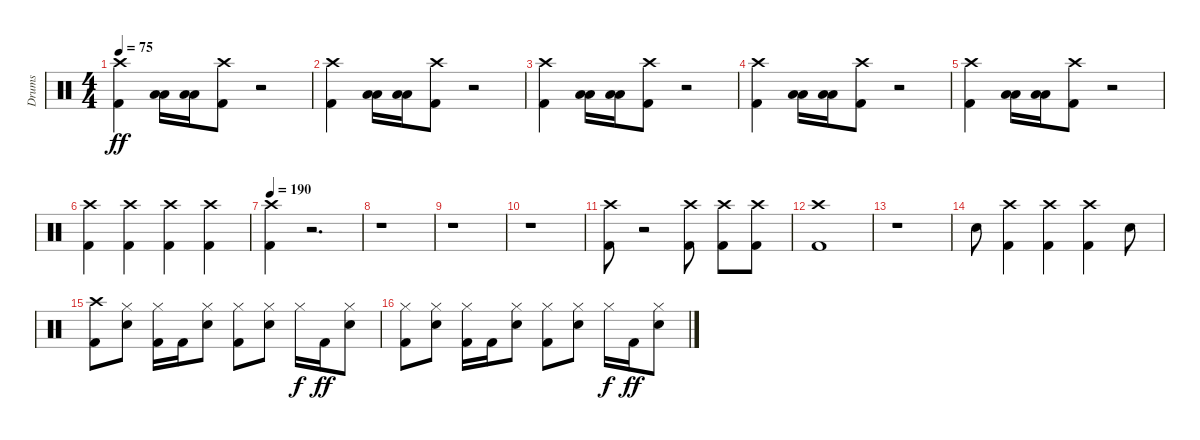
\track ("Drums" "Drums") {instrument percussion}
\staff {score}
\articulation defaults
\ts (4 4)
\tempo 75
\clef neutral
\ks c
("Crash high (hit)" "Kick (hit) 2").4{dy ff} ("Low Tom (hit)" "Low Floor Tom (hit)").16 ("Low Tom (hit)" "Low Floor Tom (hit)").16 ("Crash high (hit)" "Kick (hit) 2").8 r.2 |
("Crash high (hit)" "Kick (hit) 2").4 ("Low Tom (hit)" "Low Floor Tom (hit)").16 ("Low Tom (hit)" "Low Floor Tom (hit)").16 ("Crash high (hit)" "Kick (hit) 2").8 r.2 |
("Crash high (hit)" "Kick (hit) 2").4 ("Low Tom (hit)" "Low Floor Tom (hit)").16 ("Low Tom (hit)" "Low Floor Tom (hit)").16 ("Crash high (hit)" "Kick (hit) 2").8 r.2 |
("Crash high (hit)" "Kick (hit) 2").4 ("Low Tom (hit)" "Low Floor Tom (hit)").16 ("Low Tom (hit)" "Low Floor Tom (hit)").16 ("Crash high (hit)" "Kick (hit) 2").8 r.2 |
("Crash high (hit)" "Kick (hit) 2").4 ("Low Tom (hit)" "Low Floor Tom (hit)").16 ("Low Tom (hit)" "Low Floor Tom (hit)").16 ("Crash high (hit)" "Kick (hit) 2").8 r.2 |
("Crash high (hit)" "Kick (hit) 2").4 ("Crash high (hit)" "Kick (hit) 2").4 ("Crash high (hit)" "Kick (hit) 2").4 ("Crash high (hit)" "Kick (hit) 2").4 |
\tempo 190
("Crash high (hit)" "Kick (hit) 2").4 r.2{d} |
r.1 |
r.1 |
r.1 |
("Crash high (hit)" "Kick (hit) 2").8 r.2 ("Crash high (hit)" "Kick (hit) 2").8 ("Crash high (hit)" "Kick (hit) 2").8 ("Crash high (hit)" "Kick (hit) 2").8 |
("Crash high (hit)" "Kick (hit) 2").1 |
r.1 |
"Snare (hit) 2".8 ("Crash high (hit)" "Kick (hit) 2").4 ("Crash high (hit)" "Kick (hit) 2").4 ("Crash high (hit)" "Kick (hit) 2").4 "Snare (hit) 2".8 |
("Crash high (hit)" "Kick (hit) 2").8 ("Hi-Hat (closed)" "Snare (hit) 2").8 ("Hi-Hat (closed)" "Kick (hit) 2").16 "Kick (hit) 2".16 ("Hi-Hat (closed)" "Snare (hit) 2").8 ("Hi-Hat (closed)" "Kick (hit) 2").8 ("Hi-Hat (closed)" "Snare (hit) 2").8 "Hi-Hat (closed)".16{dy f} "Kick (hit) 2".16{dy ff} ("Hi-Hat (closed)" "Snare (hit) 2").8 |
("Hi-Hat (closed)" "Kick (hit) 2").8 ("Hi-Hat (closed)" "Snare (hit) 2").8 ("Hi-Hat (closed)" "Kick (hit) 2").16 "Kick (hit) 2".16 ("Hi-Hat (closed)" "Snare (hit) 2").8 ("Hi-Hat (closed)" "Kick (hit) 2").8 ("Hi-Hat (closed)" "Snare (hit) 2").8 "Hi-Hat (closed)".16{dy f} "Kick (hit) 2".16{dy ff} ("Hi-Hat (closed)" "Snare (hit) 2").8
